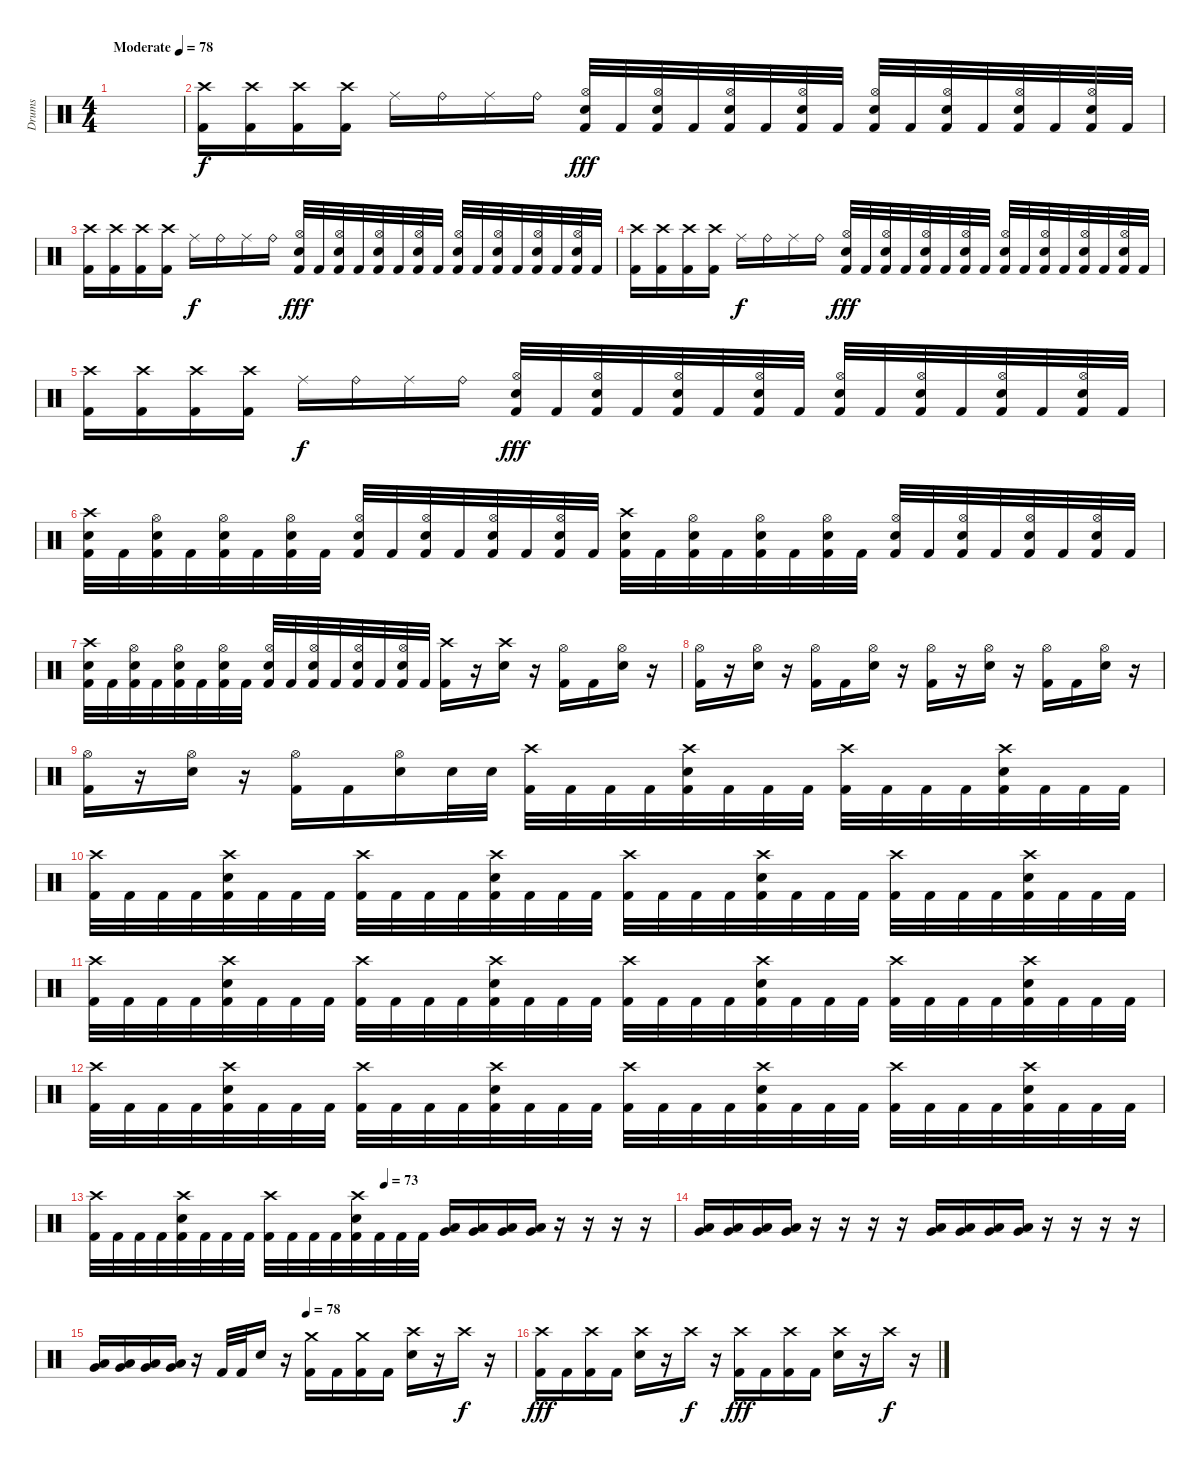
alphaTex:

\track ("Drums" "Drums") {instrument percussion}
\staff {score}
\articulation defaults
\ts (4 4)
\tempo (78 "Moderate")
\clef neutral
\ks c
|
("Crash high (hit)" "Kick (hit) 2").16 ("Crash high (hit)" "Kick (hit) 2").16 ("Crash high (hit)" "Kick (hit) 2").16 ("Crash high (hit)" "Kick (hit) 2").16 "Ride (middle)".16{dy f} "Ride (bell)".16 "Ride (middle)".16 "Ride (bell)".16 ("Hi-Hat (open)" "Electric Snare (hit)" "Kick (hit) 2").32{dy fff} "Kick (hit) 2".32 ("Hi-Hat (open)" "Electric Snare (hit)" "Kick (hit) 2").32 "Kick (hit) 2".32 ("Hi-Hat (open)" "Electric Snare (hit)" "Kick (hit) 2").32 "Kick (hit) 2".32 ("Hi-Hat (open)" "Electric Snare (hit)" "Kick (hit) 2").32 "Kick (hit) 2".32 ("Hi-Hat (open)" "Electric Snare (hit)" "Kick (hit) 2").32 "Kick (hit) 2".32 ("Hi-Hat (open)" "Electric Snare (hit)" "Kick (hit) 2").32 "Kick (hit) 2".32 ("Hi-Hat (open)" "Electric Snare (hit)" "Kick (hit) 2").32 "Kick (hit) 2".32 ("Hi-Hat (open)" "Electric Snare (hit)" "Kick (hit) 2").32 "Kick (hit) 2".32 |
("Crash high (hit)" "Kick (hit) 2").16 ("Crash high (hit)" "Kick (hit) 2").16 ("Crash high (hit)" "Kick (hit) 2").16 ("Crash high (hit)" "Kick (hit) 2").16 "Ride (middle)".16{dy f} "Ride (bell)".16 "Ride (middle)".16 "Ride (bell)".16 ("Hi-Hat (open)" "Electric Snare (hit)" "Kick (hit) 2").32{dy fff} "Kick (hit) 2".32 ("Hi-Hat (open)" "Electric Snare (hit)" "Kick (hit) 2").32 "Kick (hit) 2".32 ("Hi-Hat (open)" "Electric Snare (hit)" "Kick (hit) 2").32 "Kick (hit) 2".32 ("Hi-Hat (open)" "Electric Snare (hit)" "Kick (hit) 2").32 "Kick (hit) 2".32 ("Hi-Hat (open)" "Electric Snare (hit)" "Kick (hit) 2").32 "Kick (hit) 2".32 ("Hi-Hat (open)" "Electric Snare (hit)" "Kick (hit) 2").32 "Kick (hit) 2".32 ("Hi-Hat (open)" "Electric Snare (hit)" "Kick (hit) 2").32 "Kick (hit) 2".32 ("Hi-Hat (open)" "Electric Snare (hit)" "Kick (hit) 2").32 "Kick (hit) 2".32 |
("Crash high (hit)" "Kick (hit) 2").16 ("Crash high (hit)" "Kick (hit) 2").16 ("Crash high (hit)" "Kick (hit) 2").16 ("Crash high (hit)" "Kick (hit) 2").16 "Ride (middle)".16{dy f} "Ride (bell)".16 "Ride (middle)".16 "Ride (bell)".16 ("Hi-Hat (open)" "Electric Snare (hit)" "Kick (hit) 2").32{dy fff} "Kick (hit) 2".32 ("Hi-Hat (open)" "Electric Snare (hit)" "Kick (hit) 2").32 "Kick (hit) 2".32 ("Hi-Hat (open)" "Electric Snare (hit)" "Kick (hit) 2").32 "Kick (hit) 2".32 ("Hi-Hat (open)" "Electric Snare (hit)" "Kick (hit) 2").32 "Kick (hit) 2".32 ("Hi-Hat (open)" "Electric Snare (hit)" "Kick (hit) 2").32 "Kick (hit) 2".32 ("Hi-Hat (open)" "Electric Snare (hit)" "Kick (hit) 2").32 "Kick (hit) 2".32 ("Hi-Hat (open)" "Electric Snare (hit)" "Kick (hit) 2").32 "Kick (hit) 2".32 ("Hi-Hat (open)" "Electric Snare (hit)" "Kick (hit) 2").32 "Kick (hit) 2".32 |
("Crash high (hit)" "Kick (hit) 2").16 ("Crash high (hit)" "Kick (hit) 2").16 ("Crash high (hit)" "Kick (hit) 2").16 ("Crash high (hit)" "Kick (hit) 2").16 "Ride (middle)".16{dy f} "Ride (bell)".16 "Ride (middle)".16 "Ride (bell)".16 ("Hi-Hat (open)" "Electric Snare (hit)" "Kick (hit) 2").32{dy fff} "Kick (hit) 2".32 ("Hi-Hat (open)" "Electric Snare (hit)" "Kick (hit) 2").32 "Kick (hit) 2".32 ("Hi-Hat (open)" "Electric Snare (hit)" "Kick (hit) 2").32 "Kick (hit) 2".32 ("Hi-Hat (open)" "Electric Snare (hit)" "Kick (hit) 2").32 "Kick (hit) 2".32 ("Hi-Hat (open)" "Electric Snare (hit)" "Kick (hit) 2").32 "Kick (hit) 2".32 ("Hi-Hat (open)" "Electric Snare (hit)" "Kick (hit) 2").32 "Kick (hit) 2".32 ("Hi-Hat (open)" "Electric Snare (hit)" "Kick (hit) 2").32 "Kick (hit) 2".32 ("Hi-Hat (open)" "Electric Snare (hit)" "Kick (hit) 2").32 "Kick (hit) 2".32 |
("Crash high (hit)" "Electric Snare (hit)" "Kick (hit) 2").32 "Kick (hit) 2".32 ("Hi-Hat (open)" "Electric Snare (hit)" "Kick (hit) 2").32 "Kick (hit) 2".32 ("Hi-Hat (open)" "Electric Snare (hit)" "Kick (hit) 2").32 "Kick (hit) 2".32 ("Hi-Hat (open)" "Electric Snare (hit)" "Kick (hit) 2").32 "Kick (hit) 2".32 ("Hi-Hat (open)" "Electric Snare (hit)" "Kick (hit) 2").32 "Kick (hit) 2".32 ("Hi-Hat (open)" "Electric Snare (hit)" "Kick (hit) 2").32 "Kick (hit) 2".32 ("Hi-Hat (open)" "Electric Snare (hit)" "Kick (hit) 2").32 "Kick (hit) 2".32 ("Hi-Hat (open)" "Electric Snare (hit)" "Kick (hit) 2").32 "Kick (hit) 2".32 ("Crash high (hit)" "Electric Snare (hit)" "Kick (hit) 2").32 "Kick (hit) 2".32 ("Hi-Hat (open)" "Electric Snare (hit)" "Kick (hit) 2").32 "Kick (hit) 2".32 ("Hi-Hat (open)" "Electric Snare (hit)" "Kick (hit) 2").32 "Kick (hit) 2".32 ("Hi-Hat (open)" "Electric Snare (hit)" "Kick (hit) 2").32 "Kick (hit) 2".32 ("Hi-Hat (open)" "Electric Snare (hit)" "Kick (hit) 2").32 "Kick (hit) 2".32 ("Hi-Hat (open)" "Electric Snare (hit)" "Kick (hit) 2").32 "Kick (hit) 2".32 ("Hi-Hat (open)" "Electric Snare (hit)" "Kick (hit) 2").32 "Kick (hit) 2".32 ("Hi-Hat (open)" "Electric Snare (hit)" "Kick (hit) 2").32 "Kick (hit) 2".32 |
("Crash high (hit)" "Electric Snare (hit)" "Kick (hit) 2").32 "Kick (hit) 2".32 ("Hi-Hat (open)" "Electric Snare (hit)" "Kick (hit) 2").32 "Kick (hit) 2".32 ("Hi-Hat (open)" "Electric Snare (hit)" "Kick (hit) 2").32 "Kick (hit) 2".32 ("Hi-Hat (open)" "Electric Snare (hit)" "Kick (hit) 2").32 "Kick (hit) 2".32 ("Hi-Hat (open)" "Electric Snare (hit)" "Kick (hit) 2").32 "Kick (hit) 2".32 ("Hi-Hat (open)" "Electric Snare (hit)" "Kick (hit) 2").32 "Kick (hit) 2".32 ("Hi-Hat (open)" "Electric Snare (hit)" "Kick (hit) 2").32 "Kick (hit) 2".32 ("Hi-Hat (open)" "Electric Snare (hit)" "Kick (hit) 2").32 "Kick (hit) 2".32 ("Crash high (hit)" "Kick (hit) 2").16 r.16 ("Crash high (hit)" "Electric Snare (hit)").16 r.16 ("Hi-Hat (open)" "Kick (hit) 2").16 "Kick (hit) 2".16 ("Hi-Hat (open)" "Electric Snare (hit)").16 r.16 |
("Hi-Hat (open)" "Kick (hit) 2").16 r.16 ("Hi-Hat (open)" "Electric Snare (hit)").16 r.16 ("Hi-Hat (open)" "Kick (hit) 2").16 "Kick (hit) 2".16 ("Hi-Hat (open)" "Electric Snare (hit)").16 r.16 ("Hi-Hat (open)" "Kick (hit) 2").16 r.16 ("Hi-Hat (open)" "Electric Snare (hit)").16 r.16 ("Hi-Hat (open)" "Kick (hit) 2").16 "Kick (hit) 2".16 ("Hi-Hat (open)" "Electric Snare (hit)").16 r.16 |
("Hi-Hat (open)" "Kick (hit) 2").16 r.16 ("Hi-Hat (open)" "Electric Snare (hit)").16 r.16 ("Hi-Hat (open)" "Kick (hit) 2").16 "Kick (hit) 2".16 ("Hi-Hat (open)" "Electric Snare (hit)").16 "Electric Snare (hit)".32 "Electric Snare (hit)".32 ("Crash high (hit)" "Kick (hit) 2").32 "Kick (hit) 2".32 "Kick (hit) 2".32 "Kick (hit) 2".32 ("Crash high (hit)" "Electric Snare (hit)" "Kick (hit) 2").32 "Kick (hit) 2".32 "Kick (hit) 2".32 "Kick (hit) 2".32 ("Crash high (hit)" "Kick (hit) 2").32 "Kick (hit) 2".32 "Kick (hit) 2".32 "Kick (hit) 2".32 ("Crash high (hit)" "Electric Snare (hit)" "Kick (hit) 2").32 "Kick (hit) 2".32 "Kick (hit) 2".32 "Kick (hit) 2".32 |
("Crash high (hit)" "Kick (hit) 2").32 "Kick (hit) 2".32 "Kick (hit) 2".32 "Kick (hit) 2".32 ("Crash high (hit)" "Electric Snare (hit)" "Kick (hit) 2").32 "Kick (hit) 2".32 "Kick (hit) 2".32 "Kick (hit) 2".32 ("Crash high (hit)" "Kick (hit) 2").32 "Kick (hit) 2".32 "Kick (hit) 2".32 "Kick (hit) 2".32 ("Crash high (hit)" "Electric Snare (hit)" "Kick (hit) 2").32 "Kick (hit) 2".32 "Kick (hit) 2".32 "Kick (hit) 2".32 ("Crash high (hit)" "Kick (hit) 2").32 "Kick (hit) 2".32 "Kick (hit) 2".32 "Kick (hit) 2".32 ("Crash high (hit)" "Electric Snare (hit)" "Kick (hit) 2").32 "Kick (hit) 2".32 "Kick (hit) 2".32 "Kick (hit) 2".32 ("Crash high (hit)" "Kick (hit) 2").32 "Kick (hit) 2".32 "Kick (hit) 2".32 "Kick (hit) 2".32 ("Crash high (hit)" "Electric Snare (hit)" "Kick (hit) 2").32 "Kick (hit) 2".32 "Kick (hit) 2".32 "Kick (hit) 2".32 |
("Crash high (hit)" "Kick (hit) 2").32 "Kick (hit) 2".32 "Kick (hit) 2".32 "Kick (hit) 2".32 ("Crash high (hit)" "Electric Snare (hit)" "Kick (hit) 2").32 "Kick (hit) 2".32 "Kick (hit) 2".32 "Kick (hit) 2".32 ("Crash high (hit)" "Kick (hit) 2").32 "Kick (hit) 2".32 "Kick (hit) 2".32 "Kick (hit) 2".32 ("Crash high (hit)" "Electric Snare (hit)" "Kick (hit) 2").32 "Kick (hit) 2".32 "Kick (hit) 2".32 "Kick (hit) 2".32 ("Crash high (hit)" "Kick (hit) 2").32 "Kick (hit) 2".32 "Kick (hit) 2".32 "Kick (hit) 2".32 ("Crash high (hit)" "Electric Snare (hit)" "Kick (hit) 2").32 "Kick (hit) 2".32 "Kick (hit) 2".32 "Kick (hit) 2".32 ("Crash high (hit)" "Kick (hit) 2").32 "Kick (hit) 2".32 "Kick (hit) 2".32 "Kick (hit) 2".32 ("Crash high (hit)" "Electric Snare (hit)" "Kick (hit) 2").32 "Kick (hit) 2".32 "Kick (hit) 2".32 "Kick (hit) 2".32 |
("Crash high (hit)" "Kick (hit) 2").32 "Kick (hit) 2".32 "Kick (hit) 2".32 "Kick (hit) 2".32 ("Crash high (hit)" "Electric Snare (hit)" "Kick (hit) 2").32 "Kick (hit) 2".32 "Kick (hit) 2".32 "Kick (hit) 2".32 ("Crash high (hit)" "Kick (hit) 2").32 "Kick (hit) 2".32 "Kick (hit) 2".32 "Kick (hit) 2".32 ("Crash high (hit)" "Electric Snare (hit)" "Kick (hit) 2").32 "Kick (hit) 2".32 "Kick (hit) 2".32 "Kick (hit) 2".32 ("Crash high (hit)" "Kick (hit) 2").32 "Kick (hit) 2".32 "Kick (hit) 2".32 "Kick (hit) 2".32 ("Crash high (hit)" "Electric Snare (hit)" "Kick (hit) 2").32 "Kick (hit) 2".32 "Kick (hit) 2".32 "Kick (hit) 2".32 ("Crash high (hit)" "Kick (hit) 2").32 "Kick (hit) 2".32 "Kick (hit) 2".32 "Kick (hit) 2".32 ("Crash high (hit)" "Electric Snare (hit)" "Kick (hit) 2").32 "Kick (hit) 2".32 "Kick (hit) 2".32 "Kick (hit) 2".32 |
\tempo (73 0.5)
("Crash high (hit)" "Kick (hit) 2").32 "Kick (hit) 2".32 "Kick (hit) 2".32 "Kick (hit) 2".32 ("Crash high (hit)" "Electric Snare (hit)" "Kick (hit) 2").32 "Kick (hit) 2".32 "Kick (hit) 2".32 "Kick (hit) 2".32 ("Crash high (hit)" "Kick (hit) 2").32 "Kick (hit) 2".32 "Kick (hit) 2".32 "Kick (hit) 2".32 ("Crash high (hit)" "Electric Snare (hit)" "Kick (hit) 2").32 "Kick (hit) 2".32 "Kick (hit) 2".32 "Kick (hit) 2".32 ("Very Low Tom (hit)" "Low Tom (hit)").16 ("Very Low Tom (hit)" "Low Tom (hit)").16 ("Very Low Tom (hit)" "Low Tom (hit)").16 ("Very Low Tom (hit)" "Low Tom (hit)").16 r.16 r.16 r.16 r.16 |
("Very Low Tom (hit)" "Low Tom (hit)").16 ("Very Low Tom (hit)" "Low Tom (hit)").16 ("Very Low Tom (hit)" "Low Tom (hit)").16 ("Very Low Tom (hit)" "Low Tom (hit)").16 r.16 r.16 r.16 r.16 ("Very Low Tom (hit)" "Low Tom (hit)").16 ("Very Low Tom (hit)" "Low Tom (hit)").16 ("Very Low Tom (hit)" "Low Tom (hit)").16 ("Very Low Tom (hit)" "Low Tom (hit)").16 r.16 r.16 r.16 r.16 |
\tempo (78 0.5)
("Very Low Tom (hit)" "Low Tom (hit)").16 ("Very Low Tom (hit)" "Low Tom (hit)").16 ("Very Low Tom (hit)" "Low Tom (hit)").16 ("Very Low Tom (hit)" "Low Tom (hit)").16 r.16 "Kick (hit) 2".32 "Kick (hit) 2".32 "Electric Snare (hit)".16 r.16 ("Crash medium (hit)" "Kick (hit) 2").16 "Kick (hit) 2".16 ("Crash medium (hit)" "Kick (hit) 2").16 "Kick (hit) 2".16 ("Crash high (hit)" "Electric Snare (hit)").16 r.16 "Crash high (hit)".16{dy f} r.16 |
("Crash high (hit)" "Kick (hit) 2").16{dy fff} "Kick (hit) 2".16 ("Crash high (hit)" "Kick (hit) 2").16 "Kick (hit) 2".16 ("Crash high (hit)" "Electric Snare (hit)").16 r.16 "Crash high (hit)".16{dy f} r.16 ("Crash high (hit)" "Kick (hit) 2").16{dy fff} "Kick (hit) 2".16 ("Crash high (hit)" "Kick (hit) 2").16 "Kick (hit) 2".16 ("Crash high (hit)" "Electric Snare (hit)").16 r.16 "Crash high (hit)".16{dy f} r.16
